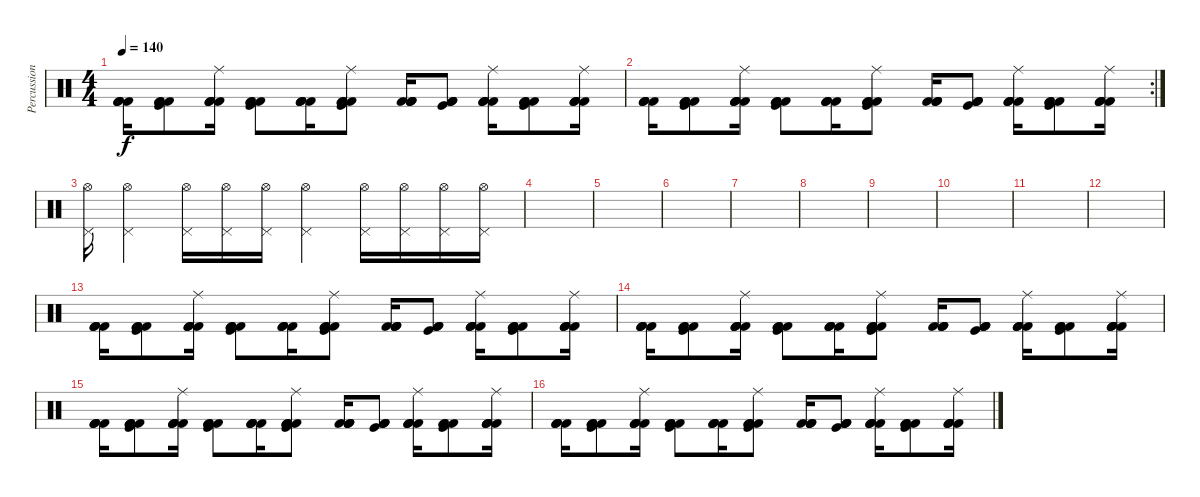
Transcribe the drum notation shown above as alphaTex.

\track ("Percussion" "Percussion") {instrument percussion}
\staff {score}
\articulation defaults
\ts (4 4)
\tempo 140
\clef neutral
\ks c
("Kick (hit) 2" "Kick (hit) 2" "Kick (hit) 2" "Kick (hit) 2").16{dy f} ("Kick (hit) 2" "Kick (hit)" "Kick (hit) 2" "Kick (hit) 2").8 ("Kick (hit) 2" "Kick (hit) 2" "Ride (middle)" "Kick (hit) 2" "Kick (hit) 2").16 ("Kick (hit) 2" "Kick (hit)" "Kick (hit) 2" "Kick (hit) 2").8 ("Kick (hit) 2" "Kick (hit) 2" "Kick (hit) 2" "Kick (hit) 2").16 ("Kick (hit) 2" "Kick (hit)" "Ride (middle)" "Kick (hit) 2" "Kick (hit) 2").8 ("Kick (hit) 2" "Kick (hit) 2" "Kick (hit) 2" "Kick (hit) 2").16 ("Kick (hit) 2" "Kick (hit)" "Kick (hit) 2" "Kick (hit) 2").8 ("Kick (hit) 2" "Kick (hit) 2" "Ride (middle)" "Kick (hit) 2" "Kick (hit) 2").16 ("Kick (hit) 2" "Kick (hit)" "Kick (hit) 2" "Kick (hit) 2").8 ("Kick (hit) 2" "Kick (hit) 2" "Ride (middle)" "Kick (hit) 2" "Kick (hit) 2").16 |
\rc 2
("Kick (hit) 2" "Kick (hit) 2" "Kick (hit) 2" "Kick (hit) 2").16 ("Kick (hit) 2" "Kick (hit)" "Kick (hit) 2" "Kick (hit) 2").8 ("Kick (hit) 2" "Kick (hit) 2" "Ride (middle)" "Kick (hit) 2" "Kick (hit) 2").16 ("Kick (hit) 2" "Kick (hit)" "Kick (hit) 2" "Kick (hit) 2").8 ("Kick (hit) 2" "Kick (hit) 2" "Kick (hit) 2" "Kick (hit) 2").16 ("Kick (hit) 2" "Kick (hit)" "Ride (middle)" "Kick (hit) 2" "Kick (hit) 2").8 ("Kick (hit) 2" "Kick (hit) 2" "Kick (hit) 2" "Kick (hit) 2").16 ("Kick (hit) 2" "Kick (hit)" "Kick (hit) 2" "Kick (hit) 2").8 ("Kick (hit) 2" "Kick (hit) 2" "Ride (middle)" "Kick (hit) 2" "Kick (hit) 2").16 ("Kick (hit) 2" "Kick (hit)" "Kick (hit) 2" "Kick (hit) 2").8 ("Kick (hit) 2" "Kick (hit) 2" "Ride (middle)" "Kick (hit) 2" "Kick (hit) 2").16 |
("Hi-Hat (open)" "Pedal Hi-Hat (hit)").16 ("Hi-Hat (open)" "Pedal Hi-Hat (hit)").4 ("Hi-Hat (open)" "Pedal Hi-Hat (hit)").16 ("Hi-Hat (open)" "Pedal Hi-Hat (hit)").16 ("Hi-Hat (open)" "Pedal Hi-Hat (hit)").16 ("Hi-Hat (open)" "Pedal Hi-Hat (hit)").4 ("Hi-Hat (open)" "Pedal Hi-Hat (hit)").16 ("Hi-Hat (open)" "Pedal Hi-Hat (hit)").16 ("Hi-Hat (open)" "Pedal Hi-Hat (hit)").16 ("Hi-Hat (open)" "Pedal Hi-Hat (hit)").16 |
|
|
|
|
|
|
|
|
|
("Kick (hit) 2" "Kick (hit) 2" "Kick (hit) 2" "Kick (hit) 2").16 ("Kick (hit) 2" "Kick (hit)" "Kick (hit) 2" "Kick (hit) 2").8 ("Kick (hit) 2" "Kick (hit) 2" "Ride (middle)" "Kick (hit) 2" "Kick (hit) 2").16 ("Kick (hit) 2" "Kick (hit)" "Kick (hit) 2" "Kick (hit) 2").8 ("Kick (hit) 2" "Kick (hit) 2" "Kick (hit) 2" "Kick (hit) 2").16 ("Kick (hit) 2" "Kick (hit)" "Ride (middle)" "Kick (hit) 2" "Kick (hit) 2").8 ("Kick (hit) 2" "Kick (hit) 2" "Kick (hit) 2" "Kick (hit) 2").16 ("Kick (hit) 2" "Kick (hit)" "Kick (hit) 2" "Kick (hit) 2").8 ("Kick (hit) 2" "Kick (hit) 2" "Ride (middle)" "Kick (hit) 2" "Kick (hit) 2").16 ("Kick (hit) 2" "Kick (hit)" "Kick (hit) 2" "Kick (hit) 2").8 ("Kick (hit) 2" "Kick (hit) 2" "Ride (middle)" "Kick (hit) 2" "Kick (hit) 2").16 |
("Kick (hit) 2" "Kick (hit) 2" "Kick (hit) 2" "Kick (hit) 2").16 ("Kick (hit) 2" "Kick (hit)" "Kick (hit) 2" "Kick (hit) 2").8 ("Kick (hit) 2" "Kick (hit) 2" "Ride (middle)" "Kick (hit) 2" "Kick (hit) 2").16 ("Kick (hit) 2" "Kick (hit)" "Kick (hit) 2" "Kick (hit) 2").8 ("Kick (hit) 2" "Kick (hit) 2" "Kick (hit) 2" "Kick (hit) 2").16 ("Kick (hit) 2" "Kick (hit)" "Ride (middle)" "Kick (hit) 2" "Kick (hit) 2").8 ("Kick (hit) 2" "Kick (hit) 2" "Kick (hit) 2" "Kick (hit) 2").16 ("Kick (hit) 2" "Kick (hit)" "Kick (hit) 2" "Kick (hit) 2").8 ("Kick (hit) 2" "Kick (hit) 2" "Ride (middle)" "Kick (hit) 2" "Kick (hit) 2").16 ("Kick (hit) 2" "Kick (hit)" "Kick (hit) 2" "Kick (hit) 2").8 ("Kick (hit) 2" "Kick (hit) 2" "Ride (middle)" "Kick (hit) 2" "Kick (hit) 2").16 |
("Kick (hit) 2" "Kick (hit) 2" "Kick (hit) 2" "Kick (hit) 2").16 ("Kick (hit) 2" "Kick (hit)" "Kick (hit) 2" "Kick (hit) 2").8 ("Kick (hit) 2" "Kick (hit) 2" "Ride (middle)" "Kick (hit) 2" "Kick (hit) 2").16 ("Kick (hit) 2" "Kick (hit)" "Kick (hit) 2" "Kick (hit) 2").8 ("Kick (hit) 2" "Kick (hit) 2" "Kick (hit) 2" "Kick (hit) 2").16 ("Kick (hit) 2" "Kick (hit)" "Ride (middle)" "Kick (hit) 2" "Kick (hit) 2").8 ("Kick (hit) 2" "Kick (hit) 2" "Kick (hit) 2" "Kick (hit) 2").16 ("Kick (hit) 2" "Kick (hit)" "Kick (hit) 2" "Kick (hit) 2").8 ("Kick (hit) 2" "Kick (hit) 2" "Ride (middle)" "Kick (hit) 2" "Kick (hit) 2").16 ("Kick (hit) 2" "Kick (hit)" "Kick (hit) 2" "Kick (hit) 2").8 ("Kick (hit) 2" "Kick (hit) 2" "Ride (middle)" "Kick (hit) 2" "Kick (hit) 2").16 |
("Kick (hit) 2" "Kick (hit) 2" "Kick (hit) 2" "Kick (hit) 2").16 ("Kick (hit) 2" "Kick (hit)" "Kick (hit) 2" "Kick (hit) 2").8 ("Kick (hit) 2" "Kick (hit) 2" "Ride (middle)" "Kick (hit) 2" "Kick (hit) 2").16 ("Kick (hit) 2" "Kick (hit)" "Kick (hit) 2" "Kick (hit) 2").8 ("Kick (hit) 2" "Kick (hit) 2" "Kick (hit) 2" "Kick (hit) 2").16 ("Kick (hit) 2" "Kick (hit)" "Ride (middle)" "Kick (hit) 2" "Kick (hit) 2").8 ("Kick (hit) 2" "Kick (hit) 2" "Kick (hit) 2" "Kick (hit) 2").16 ("Kick (hit) 2" "Kick (hit)" "Kick (hit) 2" "Kick (hit) 2").8 ("Kick (hit) 2" "Kick (hit) 2" "Ride (middle)" "Kick (hit) 2" "Kick (hit) 2").16 ("Kick (hit) 2" "Kick (hit)" "Kick (hit) 2" "Kick (hit) 2").8 ("Kick (hit) 2" "Kick (hit) 2" "Ride (middle)" "Kick (hit) 2" "Kick (hit) 2").16
